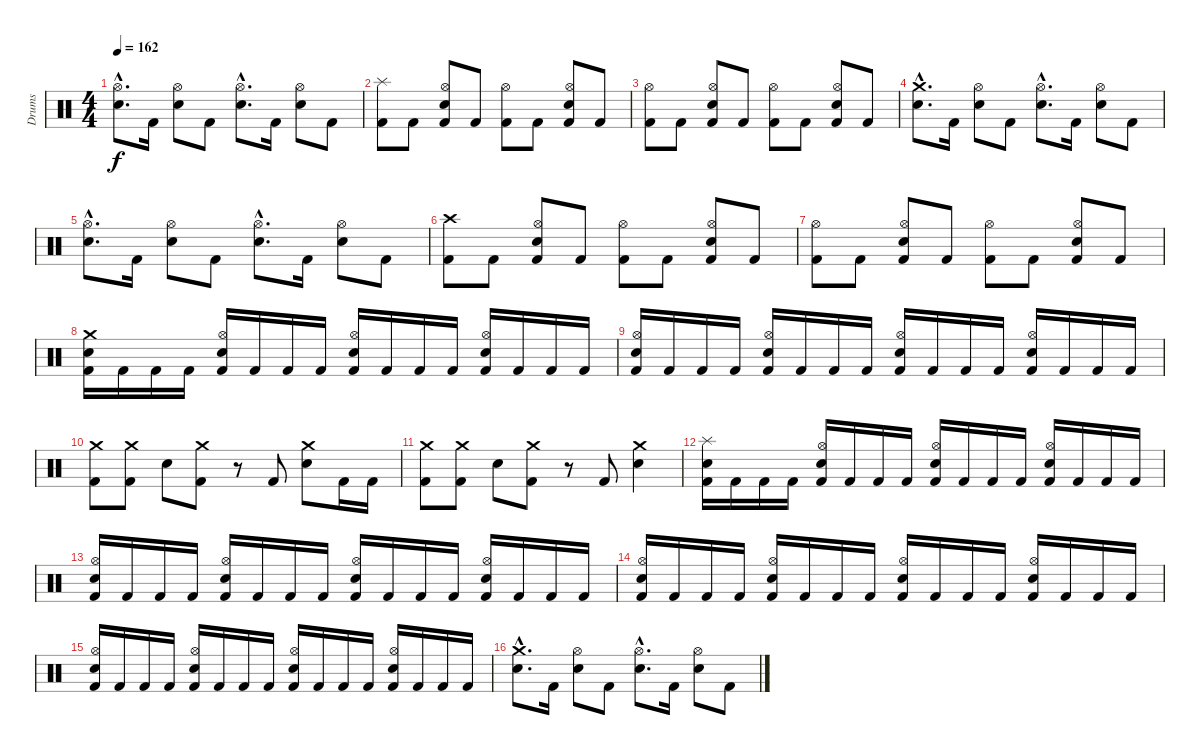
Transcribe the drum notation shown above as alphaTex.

\track ("Drums" "Drums") {instrument percussion}
\staff {score}
\articulation defaults
\ts (4 4)
\tempo 162
\clef neutral
\ks c
("Electric Snare (hit)"{hac} "Hi-Hat (open)"{hac}).8{d dy f} "Kick (hit) 2".16 ("Electric Snare (hit)" "Hi-Hat (open)").8 "Kick (hit) 2".8 ("Electric Snare (hit)"{hac} "Hi-Hat (open)"{hac}).8{d} "Kick (hit) 2".16 ("Electric Snare (hit)" "Hi-Hat (open)").8 "Kick (hit) 2".8 |
\section ("" "")
("Kick (hit) 2" "Splash (hit)").8 "Kick (hit) 2".8 ("Kick (hit) 2" "Electric Snare (hit)" "Hi-Hat (open)").8 "Kick (hit) 2".8 ("Kick (hit) 2" "Hi-Hat (open)").8 "Kick (hit) 2".8 ("Kick (hit) 2" "Electric Snare (hit)" "Hi-Hat (open)").8 "Kick (hit) 2".8 |
("Kick (hit) 2" "Hi-Hat (open)").8 "Kick (hit) 2".8 ("Kick (hit) 2" "Electric Snare (hit)" "Hi-Hat (open)").8 "Kick (hit) 2".8 ("Kick (hit) 2" "Hi-Hat (open)").8 "Kick (hit) 2".8 ("Kick (hit) 2" "Electric Snare (hit)" "Hi-Hat (open)").8 "Kick (hit) 2".8 |
("Electric Snare (hit)"{hac} "Crash medium (hit)"{hac}).8{d} "Kick (hit) 2".16 ("Electric Snare (hit)" "Hi-Hat (open)").8 "Kick (hit) 2".8 ("Electric Snare (hit)"{hac} "Hi-Hat (open)"{hac}).8{d} "Kick (hit) 2".16 ("Electric Snare (hit)" "Hi-Hat (open)").8 "Kick (hit) 2".8 |
("Electric Snare (hit)"{hac} "Hi-Hat (open)"{hac}).8{d} "Kick (hit) 2".16 ("Electric Snare (hit)" "Hi-Hat (open)").8 "Kick (hit) 2".8 ("Electric Snare (hit)"{hac} "Hi-Hat (open)"{hac}).8{d} "Kick (hit) 2".16 ("Electric Snare (hit)" "Hi-Hat (open)").8 "Kick (hit) 2".8 |
\section ("" "")
("Kick (hit) 2" "Crash high (hit)").8 "Kick (hit) 2".8 ("Kick (hit) 2" "Electric Snare (hit)" "Hi-Hat (open)").8 "Kick (hit) 2".8 ("Kick (hit) 2" "Hi-Hat (open)").8 "Kick (hit) 2".8 ("Kick (hit) 2" "Electric Snare (hit)" "Hi-Hat (open)").8 "Kick (hit) 2".8 |
("Kick (hit) 2" "Hi-Hat (open)").8 "Kick (hit) 2".8 ("Kick (hit) 2" "Electric Snare (hit)" "Hi-Hat (open)").8 "Kick (hit) 2".8 ("Kick (hit) 2" "Hi-Hat (open)").8 "Kick (hit) 2".8 ("Kick (hit) 2" "Electric Snare (hit)" "Hi-Hat (open)").8 "Kick (hit) 2".8 |
("Kick (hit) 2" "Electric Snare (hit)" "Crash medium (hit)").16 "Kick (hit) 2".16 "Kick (hit) 2".16 "Kick (hit) 2".16 ("Kick (hit) 2" "Electric Snare (hit)" "Hi-Hat (open)").16 "Kick (hit) 2".16 "Kick (hit) 2".16 "Kick (hit) 2".16 ("Kick (hit) 2" "Electric Snare (hit)" "Hi-Hat (open)").16 "Kick (hit) 2".16 "Kick (hit) 2".16 "Kick (hit) 2".16 ("Kick (hit) 2" "Electric Snare (hit)" "Hi-Hat (open)").16 "Kick (hit) 2".16 "Kick (hit) 2".16 "Kick (hit) 2".16 |
("Kick (hit) 2" "Electric Snare (hit)" "Hi-Hat (open)").16 "Kick (hit) 2".16 "Kick (hit) 2".16 "Kick (hit) 2".16 ("Kick (hit) 2" "Electric Snare (hit)" "Hi-Hat (open)").16 "Kick (hit) 2".16 "Kick (hit) 2".16 "Kick (hit) 2".16 ("Kick (hit) 2" "Electric Snare (hit)" "Hi-Hat (open)").16 "Kick (hit) 2".16 "Kick (hit) 2".16 "Kick (hit) 2".16 ("Kick (hit) 2" "Electric Snare (hit)" "Hi-Hat (open)").16 "Kick (hit) 2".16 "Kick (hit) 2".16 "Kick (hit) 2".16 |
("Kick (hit) 2" "Crash medium (hit)").8 ("Kick (hit) 2" "Crash medium (hit)").8 "Electric Snare (hit)".8 ("Kick (hit) 2" "Crash medium (hit)").8 r.8 "Kick (hit) 2".8 ("Electric Snare (hit)" "Crash medium (hit)").8 "Kick (hit) 2".16 "Kick (hit) 2".16 |
("Kick (hit) 2" "Crash medium (hit)").8 ("Kick (hit) 2" "Crash medium (hit)").8 "Electric Snare (hit)".8 ("Kick (hit) 2" "Crash medium (hit)").8 r.8 "Kick (hit) 2".8 ("Electric Snare (hit)" "Crash medium (hit)").4 |
("Kick (hit) 2" "Electric Snare (hit)" "Splash (hit)").16 "Kick (hit) 2".16 "Kick (hit) 2".16 "Kick (hit) 2".16 ("Kick (hit) 2" "Electric Snare (hit)" "Hi-Hat (open)").16 "Kick (hit) 2".16 "Kick (hit) 2".16 "Kick (hit) 2".16 ("Kick (hit) 2" "Electric Snare (hit)" "Hi-Hat (open)").16 "Kick (hit) 2".16 "Kick (hit) 2".16 "Kick (hit) 2".16 ("Kick (hit) 2" "Electric Snare (hit)" "Hi-Hat (open)").16 "Kick (hit) 2".16 "Kick (hit) 2".16 "Kick (hit) 2".16 |
("Kick (hit) 2" "Electric Snare (hit)" "Hi-Hat (open)").16 "Kick (hit) 2".16 "Kick (hit) 2".16 "Kick (hit) 2".16 ("Kick (hit) 2" "Electric Snare (hit)" "Hi-Hat (open)").16 "Kick (hit) 2".16 "Kick (hit) 2".16 "Kick (hit) 2".16 ("Kick (hit) 2" "Electric Snare (hit)" "Hi-Hat (open)").16 "Kick (hit) 2".16 "Kick (hit) 2".16 "Kick (hit) 2".16 ("Kick (hit) 2" "Electric Snare (hit)" "Hi-Hat (open)").16 "Kick (hit) 2".16 "Kick (hit) 2".16 "Kick (hit) 2".16 |
("Kick (hit) 2" "Electric Snare (hit)" "Hi-Hat (open)").16 "Kick (hit) 2".16 "Kick (hit) 2".16 "Kick (hit) 2".16 ("Kick (hit) 2" "Electric Snare (hit)" "Hi-Hat (open)").16 "Kick (hit) 2".16 "Kick (hit) 2".16 "Kick (hit) 2".16 ("Kick (hit) 2" "Electric Snare (hit)" "Hi-Hat (open)").16 "Kick (hit) 2".16 "Kick (hit) 2".16 "Kick (hit) 2".16 ("Kick (hit) 2" "Electric Snare (hit)" "Hi-Hat (open)").16 "Kick (hit) 2".16 "Kick (hit) 2".16 "Kick (hit) 2".16 |
("Kick (hit) 2" "Electric Snare (hit)" "Hi-Hat (open)").16 "Kick (hit) 2".16 "Kick (hit) 2".16 "Kick (hit) 2".16 ("Kick (hit) 2" "Electric Snare (hit)" "Hi-Hat (open)").16 "Kick (hit) 2".16 "Kick (hit) 2".16 "Kick (hit) 2".16 ("Kick (hit) 2" "Electric Snare (hit)" "Hi-Hat (open)").16 "Kick (hit) 2".16 "Kick (hit) 2".16 "Kick (hit) 2".16 ("Kick (hit) 2" "Electric Snare (hit)" "Hi-Hat (open)").16 "Kick (hit) 2".16 "Kick (hit) 2".16 "Kick (hit) 2".16 |
\section ("" "")
("Electric Snare (hit)"{hac} "Crash medium (hit)"{hac}).8{d} "Kick (hit) 2".16 ("Electric Snare (hit)" "Hi-Hat (open)").8 "Kick (hit) 2".8 ("Electric Snare (hit)"{hac} "Hi-Hat (open)"{hac}).8{d} "Kick (hit) 2".16 ("Electric Snare (hit)" "Hi-Hat (open)").8 "Kick (hit) 2".8
